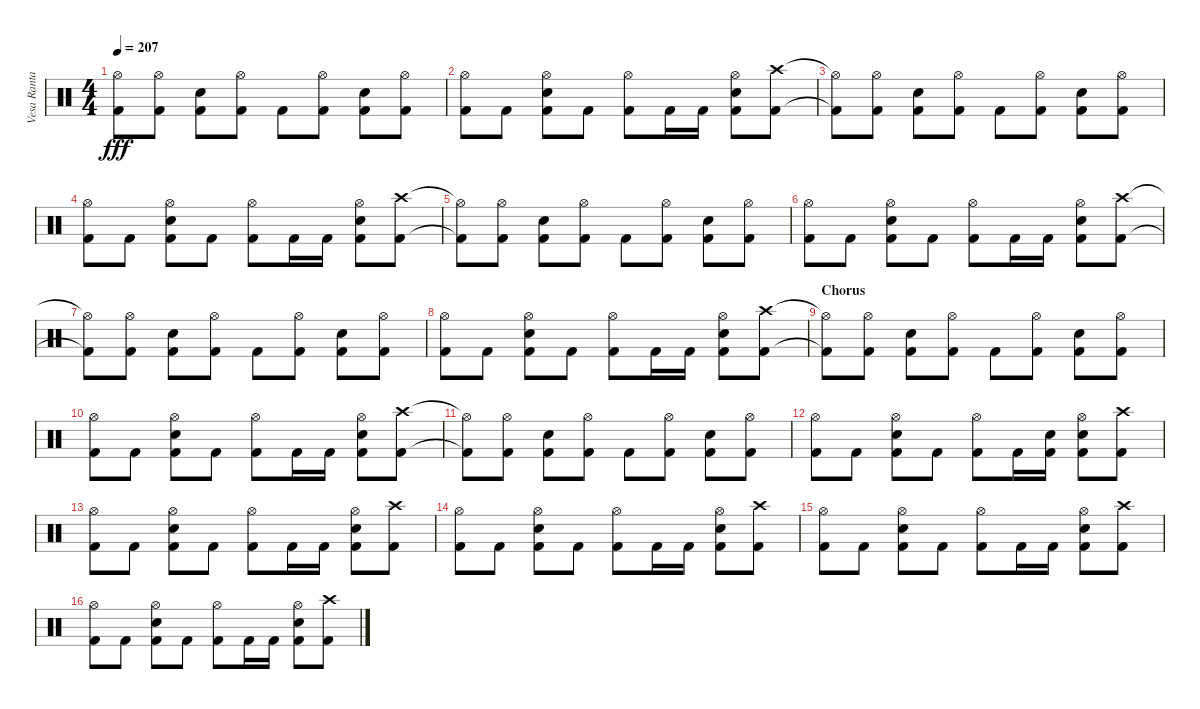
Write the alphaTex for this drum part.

\track ("Vesa Ranta" "Vesa Ranta") {instrument percussion}
\staff {score}
\articulation defaults
\ts (4 4)
\tempo 207
\clef neutral
\ks c
("Hi-Hat (open)"{t} "Kick (hit) 2"{t}).8{dy fff} ("Hi-Hat (open)" "Kick (hit) 2").8 ("Snare (hit) 2" "Kick (hit) 2").8 ("Hi-Hat (open)" "Kick (hit) 2").8 "Kick (hit) 2".8 ("Hi-Hat (open)" "Kick (hit) 2").8 ("Snare (hit) 2" "Kick (hit) 2").8 ("Hi-Hat (open)" "Kick (hit) 2").8 |
("Hi-Hat (open)" "Kick (hit) 2").8 "Kick (hit) 2".8 ("Hi-Hat (open)" "Snare (hit) 2" "Kick (hit) 2").8 "Kick (hit) 2".8 ("Hi-Hat (open)" "Kick (hit) 2").8 "Kick (hit) 2".16 "Kick (hit) 2".16 ("Hi-Hat (open)" "Snare (hit) 2" "Kick (hit) 2").8 ("Crash high (hit)" "Kick (hit) 2").8 |
("Hi-Hat (open)"{t} "Kick (hit) 2"{t}).8 ("Hi-Hat (open)" "Kick (hit) 2").8 ("Snare (hit) 2" "Kick (hit) 2").8 ("Hi-Hat (open)" "Kick (hit) 2").8 "Kick (hit) 2".8 ("Hi-Hat (open)" "Kick (hit) 2").8 ("Snare (hit) 2" "Kick (hit) 2").8 ("Hi-Hat (open)" "Kick (hit) 2").8 |
("Hi-Hat (open)" "Kick (hit) 2").8 "Kick (hit) 2".8 ("Hi-Hat (open)" "Snare (hit) 2" "Kick (hit) 2").8 "Kick (hit) 2".8 ("Hi-Hat (open)" "Kick (hit) 2").8 "Kick (hit) 2".16 "Kick (hit) 2".16 ("Hi-Hat (open)" "Snare (hit) 2" "Kick (hit) 2").8 ("Crash high (hit)" "Kick (hit) 2").8 |
("Hi-Hat (open)"{t} "Kick (hit) 2"{t}).8 ("Hi-Hat (open)" "Kick (hit) 2").8 ("Snare (hit) 2" "Kick (hit) 2").8 ("Hi-Hat (open)" "Kick (hit) 2").8 "Kick (hit) 2".8 ("Hi-Hat (open)" "Kick (hit) 2").8 ("Snare (hit) 2" "Kick (hit) 2").8 ("Hi-Hat (open)" "Kick (hit) 2").8 |
("Hi-Hat (open)" "Kick (hit) 2").8 "Kick (hit) 2".8 ("Hi-Hat (open)" "Snare (hit) 2" "Kick (hit) 2").8 "Kick (hit) 2".8 ("Hi-Hat (open)" "Kick (hit) 2").8 "Kick (hit) 2".16 "Kick (hit) 2".16 ("Hi-Hat (open)" "Snare (hit) 2" "Kick (hit) 2").8 ("Crash high (hit)" "Kick (hit) 2").8 |
("Hi-Hat (open)"{t} "Kick (hit) 2"{t}).8 ("Hi-Hat (open)" "Kick (hit) 2").8 ("Snare (hit) 2" "Kick (hit) 2").8 ("Hi-Hat (open)" "Kick (hit) 2").8 "Kick (hit) 2".8 ("Hi-Hat (open)" "Kick (hit) 2").8 ("Snare (hit) 2" "Kick (hit) 2").8 ("Hi-Hat (open)" "Kick (hit) 2").8 |
("Hi-Hat (open)" "Kick (hit) 2").8 "Kick (hit) 2".8 ("Hi-Hat (open)" "Snare (hit) 2" "Kick (hit) 2").8 "Kick (hit) 2".8 ("Hi-Hat (open)" "Kick (hit) 2").8 "Kick (hit) 2".16 "Kick (hit) 2".16 ("Hi-Hat (open)" "Snare (hit) 2" "Kick (hit) 2").8 ("Crash high (hit)" "Kick (hit) 2").8 |
\section ("" "Chorus")
("Hi-Hat (open)"{t} "Kick (hit) 2"{t}).8 ("Hi-Hat (open)" "Kick (hit) 2").8 ("Snare (hit) 2" "Kick (hit) 2").8 ("Hi-Hat (open)" "Kick (hit) 2").8 "Kick (hit) 2".8 ("Hi-Hat (open)" "Kick (hit) 2").8 ("Snare (hit) 2" "Kick (hit) 2").8 ("Hi-Hat (open)" "Kick (hit) 2").8 |
("Hi-Hat (open)" "Kick (hit) 2").8 "Kick (hit) 2".8 ("Hi-Hat (open)" "Snare (hit) 2" "Kick (hit) 2").8 "Kick (hit) 2".8 ("Hi-Hat (open)" "Kick (hit) 2").8 "Kick (hit) 2".16 "Kick (hit) 2".16 ("Hi-Hat (open)" "Snare (hit) 2" "Kick (hit) 2").8 ("Crash high (hit)" "Kick (hit) 2").8 |
("Hi-Hat (open)"{t} "Kick (hit) 2"{t}).8 ("Hi-Hat (open)" "Kick (hit) 2").8 ("Snare (hit) 2" "Kick (hit) 2").8 ("Hi-Hat (open)" "Kick (hit) 2").8 "Kick (hit) 2".8 ("Hi-Hat (open)" "Kick (hit) 2").8 ("Snare (hit) 2" "Kick (hit) 2").8 ("Hi-Hat (open)" "Kick (hit) 2").8 |
("Hi-Hat (open)" "Kick (hit) 2").8 "Kick (hit) 2".8 ("Hi-Hat (open)" "Snare (hit) 2" "Kick (hit) 2").8 "Kick (hit) 2".8 ("Hi-Hat (open)" "Kick (hit) 2").8 "Kick (hit) 2".16 ("Snare (hit) 2" "Kick (hit) 2").16 ("Hi-Hat (open)" "Snare (hit) 2" "Kick (hit) 2").8 ("Crash high (hit)" "Kick (hit) 2").8 |
("Hi-Hat (open)" "Kick (hit) 2").8 "Kick (hit) 2".8 ("Hi-Hat (open)" "Snare (hit) 2" "Kick (hit) 2").8 "Kick (hit) 2".8 ("Hi-Hat (open)" "Kick (hit) 2").8 "Kick (hit) 2".16 "Kick (hit) 2".16 ("Hi-Hat (open)" "Snare (hit) 2" "Kick (hit) 2").8 ("Crash high (hit)" "Kick (hit) 2").8 |
("Hi-Hat (open)" "Kick (hit) 2").8 "Kick (hit) 2".8 ("Hi-Hat (open)" "Snare (hit) 2" "Kick (hit) 2").8 "Kick (hit) 2".8 ("Hi-Hat (open)" "Kick (hit) 2").8 "Kick (hit) 2".16 "Kick (hit) 2".16 ("Hi-Hat (open)" "Snare (hit) 2" "Kick (hit) 2").8 ("Crash high (hit)" "Kick (hit) 2").8 |
("Hi-Hat (open)" "Kick (hit) 2").8 "Kick (hit) 2".8 ("Hi-Hat (open)" "Snare (hit) 2" "Kick (hit) 2").8 "Kick (hit) 2".8 ("Hi-Hat (open)" "Kick (hit) 2").8 "Kick (hit) 2".16 "Kick (hit) 2".16 ("Hi-Hat (open)" "Snare (hit) 2" "Kick (hit) 2").8 ("Crash high (hit)" "Kick (hit) 2").8 |
("Hi-Hat (open)" "Kick (hit) 2").8 "Kick (hit) 2".8 ("Hi-Hat (open)" "Snare (hit) 2" "Kick (hit) 2").8 "Kick (hit) 2".8 ("Hi-Hat (open)" "Kick (hit) 2").8 "Kick (hit) 2".16 "Kick (hit) 2".16 ("Hi-Hat (open)" "Snare (hit) 2" "Kick (hit) 2").8 ("Crash high (hit)" "Kick (hit) 2").8
